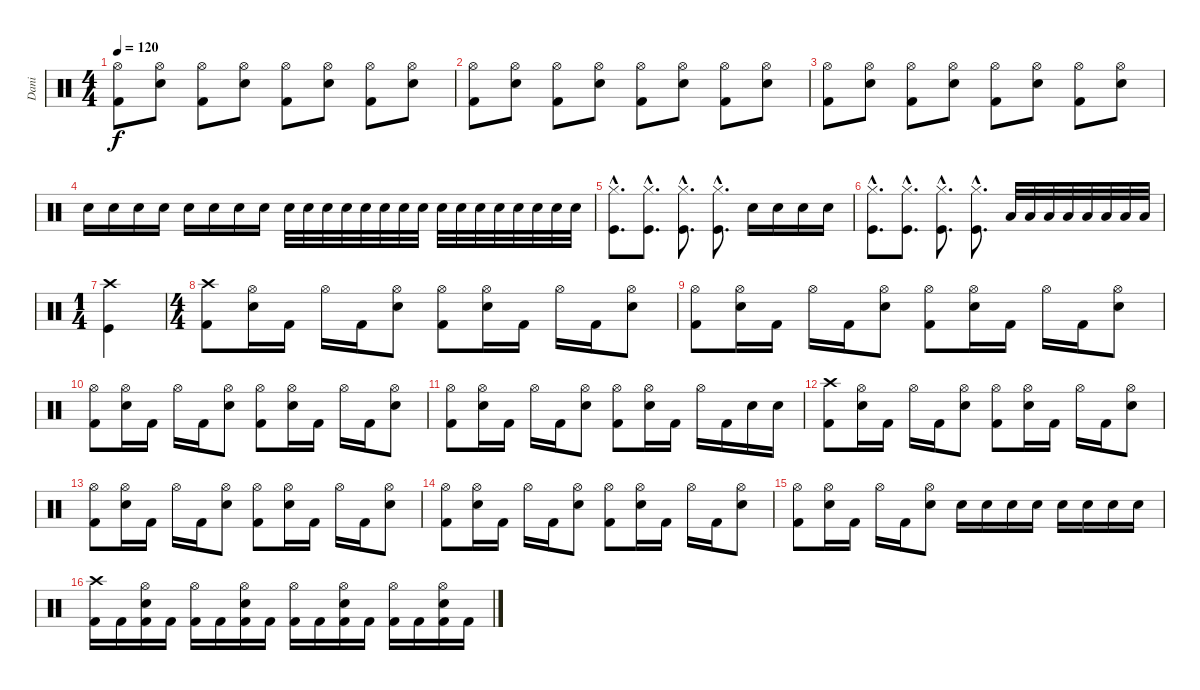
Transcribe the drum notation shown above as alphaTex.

\track ("Dani" "Dani") {instrument percussion}
\staff {score}
\articulation defaults
\ts (4 4)
\tempo 120
\clef neutral
\ks c
("Hi-Hat (open)" "Kick (hit) 2").8{dy f} ("Hi-Hat (open)" "Snare (hit) 2").8 ("Hi-Hat (open)" "Kick (hit) 2").8 ("Hi-Hat (open)" "Snare (hit) 2").8 ("Hi-Hat (open)" "Kick (hit) 2").8 ("Hi-Hat (open)" "Snare (hit) 2").8 ("Hi-Hat (open)" "Kick (hit) 2").8 ("Hi-Hat (open)" "Snare (hit) 2").8 |
("Hi-Hat (open)" "Kick (hit) 2").8 ("Hi-Hat (open)" "Snare (hit) 2").8 ("Hi-Hat (open)" "Kick (hit) 2").8 ("Hi-Hat (open)" "Snare (hit) 2").8 ("Hi-Hat (open)" "Kick (hit) 2").8 ("Hi-Hat (open)" "Snare (hit) 2").8 ("Hi-Hat (open)" "Kick (hit) 2").8 ("Hi-Hat (open)" "Snare (hit) 2").8 |
("Hi-Hat (open)" "Kick (hit) 2").8 ("Hi-Hat (open)" "Snare (hit) 2").8 ("Hi-Hat (open)" "Kick (hit) 2").8 ("Hi-Hat (open)" "Snare (hit) 2").8 ("Hi-Hat (open)" "Kick (hit) 2").8 ("Hi-Hat (open)" "Snare (hit) 2").8 ("Hi-Hat (open)" "Kick (hit) 2").8 ("Hi-Hat (open)" "Snare (hit) 2").8 |
"Snare (hit) 2".16 "Snare (hit) 2".16 "Snare (hit) 2".16 "Snare (hit) 2".16 "Snare (hit) 2".16 "Snare (hit) 2".16 "Snare (hit) 2".16 "Snare (hit) 2".16 "Snare (hit) 2".32 "Snare (hit) 2".32 "Snare (hit) 2".32 "Snare (hit) 2".32 "Snare (hit) 2".32 "Snare (hit) 2".32 "Snare (hit) 2".32 "Snare (hit) 2".32 "Snare (hit) 2".32 "Snare (hit) 2".32 "Snare (hit) 2".32 "Snare (hit) 2".32 "Snare (hit) 2".32 "Snare (hit) 2".32 "Snare (hit) 2".32 "Snare (hit) 2".32 |
("Hi-Hat (closed)"{hac} "Kick (hit)"{hac}).8{d} ("Hi-Hat (closed)"{hac} "Kick (hit)"{hac}).8{d} ("Hi-Hat (closed)"{hac} "Kick (hit)"{hac}).8{d} ("Hi-Hat (closed)"{hac} "Kick (hit)"{hac}).8{d} "Snare (hit) 2".16 "Snare (hit) 2".16 "Snare (hit) 2".16 "Snare (hit) 2".16 |
("Hi-Hat (closed)"{hac} "Kick (hit)"{hac}).8{d} ("Hi-Hat (closed)"{hac} "Kick (hit)"{hac}).8{d} ("Hi-Hat (closed)"{hac} "Kick (hit)"{hac}).8{d} ("Hi-Hat (closed)"{hac} "Kick (hit)"{hac}).8{d} "Low Tom (hit)".32 "Low Tom (hit)".32 "Low Tom (hit)".32 "Low Tom (hit)".32 "Low Tom (hit)".32 "Low Tom (hit)".32 "Low Tom (hit)".32 "Low Tom (hit)".32 |
\ts (1 4)
("Crash high (hit)" "Kick (hit)").4 |
\ts (4 4)
("Crash high (hit)" "Kick (hit) 2").8 ("Hi-Hat (open)" "Snare (hit) 2").16 "Kick (hit) 2".16 "Hi-Hat (open)".16 "Kick (hit) 2".16 ("Hi-Hat (open)" "Snare (hit) 2").8 ("Hi-Hat (open)" "Kick (hit) 2").8 ("Hi-Hat (open)" "Snare (hit) 2").16 "Kick (hit) 2".16 "Hi-Hat (open)".16 "Kick (hit) 2".16 ("Hi-Hat (open)" "Snare (hit) 2").8 |
("Hi-Hat (open)" "Kick (hit) 2").8 ("Hi-Hat (open)" "Snare (hit) 2").16 "Kick (hit) 2".16 "Hi-Hat (open)".16 "Kick (hit) 2".16 ("Hi-Hat (open)" "Snare (hit) 2").8 ("Hi-Hat (open)" "Kick (hit) 2").8 ("Hi-Hat (open)" "Snare (hit) 2").16 "Kick (hit) 2".16 "Hi-Hat (open)".16 "Kick (hit) 2".16 ("Hi-Hat (open)" "Snare (hit) 2").8 |
("Hi-Hat (open)" "Kick (hit) 2").8 ("Hi-Hat (open)" "Snare (hit) 2").16 "Kick (hit) 2".16 "Hi-Hat (open)".16 "Kick (hit) 2".16 ("Hi-Hat (open)" "Snare (hit) 2").8 ("Hi-Hat (open)" "Kick (hit) 2").8 ("Hi-Hat (open)" "Snare (hit) 2").16 "Kick (hit) 2".16 "Hi-Hat (open)".16 "Kick (hit) 2".16 ("Hi-Hat (open)" "Snare (hit) 2").8 |
("Hi-Hat (open)" "Kick (hit) 2").8 ("Hi-Hat (open)" "Snare (hit) 2").16 "Kick (hit) 2".16 "Hi-Hat (open)".16 "Kick (hit) 2".16 ("Hi-Hat (open)" "Snare (hit) 2").8 ("Hi-Hat (open)" "Kick (hit) 2").8 ("Hi-Hat (open)" "Snare (hit) 2").16 "Kick (hit) 2".16 "Hi-Hat (open)".16 "Kick (hit) 2".16 "Snare (hit) 2".16 "Snare (hit) 2".16 |
("Crash high (hit)" "Kick (hit) 2").8 ("Hi-Hat (open)" "Snare (hit) 2").16 "Kick (hit) 2".16 "Hi-Hat (open)".16 "Kick (hit) 2".16 ("Hi-Hat (open)" "Snare (hit) 2").8 ("Hi-Hat (open)" "Kick (hit) 2").8 ("Hi-Hat (open)" "Snare (hit) 2").16 "Kick (hit) 2".16 "Hi-Hat (open)".16 "Kick (hit) 2".16 ("Hi-Hat (open)" "Snare (hit) 2").8 |
("Hi-Hat (open)" "Kick (hit) 2").8 ("Hi-Hat (open)" "Snare (hit) 2").16 "Kick (hit) 2".16 "Hi-Hat (open)".16 "Kick (hit) 2".16 ("Hi-Hat (open)" "Snare (hit) 2").8 ("Hi-Hat (open)" "Kick (hit) 2").8 ("Hi-Hat (open)" "Snare (hit) 2").16 "Kick (hit) 2".16 "Hi-Hat (open)".16 "Kick (hit) 2".16 ("Hi-Hat (open)" "Snare (hit) 2").8 |
("Hi-Hat (open)" "Kick (hit) 2").8 ("Hi-Hat (open)" "Snare (hit) 2").16 "Kick (hit) 2".16 "Hi-Hat (open)".16 "Kick (hit) 2".16 ("Hi-Hat (open)" "Snare (hit) 2").8 ("Hi-Hat (open)" "Kick (hit) 2").8 ("Hi-Hat (open)" "Snare (hit) 2").16 "Kick (hit) 2".16 "Hi-Hat (open)".16 "Kick (hit) 2".16 ("Hi-Hat (open)" "Snare (hit) 2").8 |
("Hi-Hat (open)" "Kick (hit) 2").8 ("Hi-Hat (open)" "Snare (hit) 2").16 "Kick (hit) 2".16 "Hi-Hat (open)".16 "Kick (hit) 2".16 ("Hi-Hat (open)" "Snare (hit) 2").8 "Snare (hit) 2".16 "Snare (hit) 2".16 "Snare (hit) 2".16 "Snare (hit) 2".16 "Snare (hit) 2".16 "Snare (hit) 2".16 "Snare (hit) 2".16 "Snare (hit) 2".16 |
("Crash high (hit)" "Kick (hit) 2").16 "Kick (hit) 2".16 ("Hi-Hat (open)" "Snare (hit) 2" "Kick (hit) 2").16 "Kick (hit) 2".16 ("Hi-Hat (open)" "Kick (hit) 2").16 "Kick (hit) 2".16 ("Hi-Hat (open)" "Snare (hit) 2" "Kick (hit) 2").16 "Kick (hit) 2".16 ("Hi-Hat (open)" "Kick (hit) 2").16 "Kick (hit) 2".16 ("Hi-Hat (open)" "Snare (hit) 2" "Kick (hit) 2").16 "Kick (hit) 2".16 ("Hi-Hat (open)" "Kick (hit) 2").16 "Kick (hit) 2".16 ("Hi-Hat (open)" "Snare (hit) 2" "Kick (hit) 2").16 "Kick (hit) 2".16
